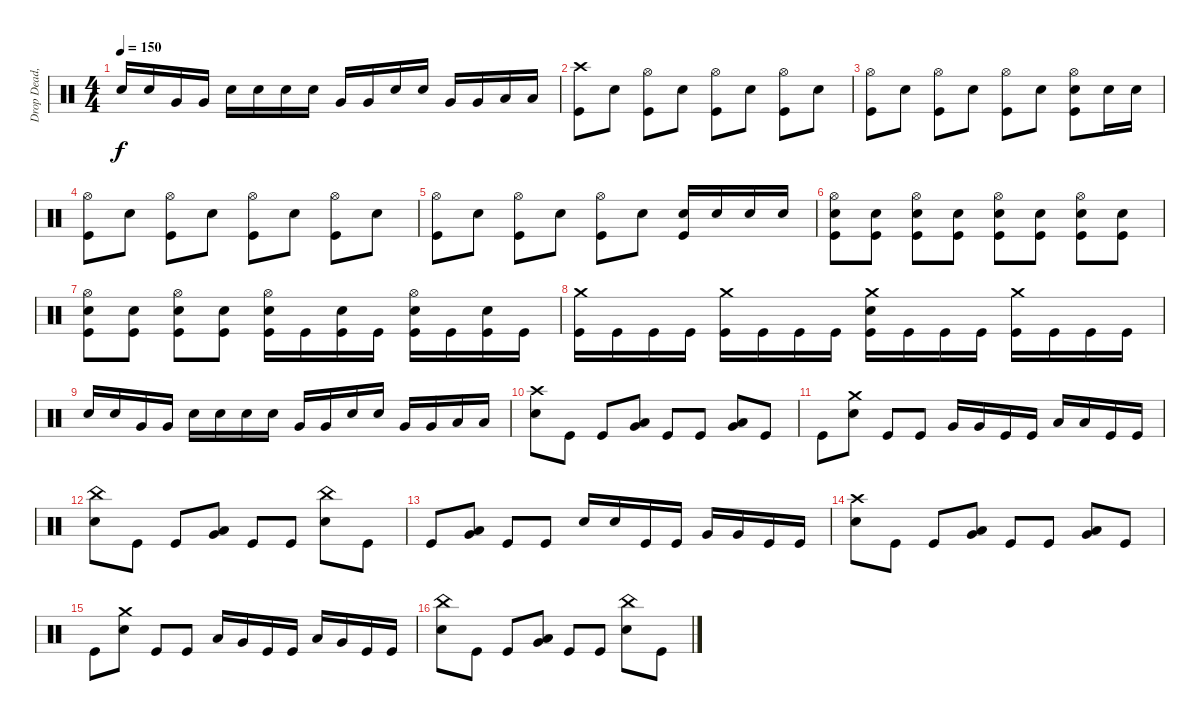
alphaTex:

\track ("Drop Dead, Johnny" "Drop Dead,") {instrument percussion}
\staff {score}
\articulation defaults
\ts (4 4)
\tempo 150
\clef neutral
\ks c "Electric Snare (hit)".16{dy f} "Electric Snare (hit)".16 "Very Low Tom (hit)".16 "Very Low Tom (hit)".16 "Electric Snare (hit)".16 "Electric Snare (hit)".16 "Electric Snare (hit)".16 "Electric Snare (hit)".16 "Very Low Tom (hit)".16 "Very Low Tom (hit)".16 "Electric Snare (hit)".16 "Electric Snare (hit)".16 "Very Low Tom (hit)".16 "Very Low Tom (hit)".16 "Low Floor Tom (hit)".16 "Low Floor Tom (hit)".16
|
("Crash high (hit)" "Kick (hit)").8 "Electric Snare (hit)".8 ("Hi-Hat (open)" "Kick (hit)").8 "Electric Snare (hit)".8 ("Hi-Hat (open)" "Kick (hit)").8 "Electric Snare (hit)".8 ("Hi-Hat (open)" "Kick (hit)").8 "Electric Snare (hit)".8 |
("Hi-Hat (open)" "Kick (hit)").8 "Electric Snare (hit)".8 ("Hi-Hat (open)" "Kick (hit)").8 "Electric Snare (hit)".8 ("Hi-Hat (open)" "Kick (hit)").8 "Electric Snare (hit)".8 ("Hi-Hat (open)" "Electric Snare (hit)" "Kick (hit)").8 "Electric Snare (hit)".16 "Electric Snare (hit)".16 |
("Hi-Hat (open)" "Kick (hit)").8 "Electric Snare (hit)".8 ("Hi-Hat (open)" "Kick (hit)").8 "Electric Snare (hit)".8 ("Hi-Hat (open)" "Kick (hit)").8 "Electric Snare (hit)".8 ("Hi-Hat (open)" "Kick (hit)").8 "Electric Snare (hit)".8 |
("Hi-Hat (open)" "Kick (hit)").8 "Electric Snare (hit)".8 ("Hi-Hat (open)" "Kick (hit)").8 "Electric Snare (hit)".8 ("Hi-Hat (open)" "Kick (hit)").8 "Electric Snare (hit)".8 ("Electric Snare (hit)" "Kick (hit)").16 "Electric Snare (hit)".16 "Electric Snare (hit)".16 "Electric Snare (hit)".16 |
("Hi-Hat (open)" "Electric Snare (hit)" "Kick (hit)").8 ("Electric Snare (hit)" "Kick (hit)").8 ("Hi-Hat (open)" "Electric Snare (hit)" "Kick (hit)").8 ("Electric Snare (hit)" "Kick (hit)").8 ("Hi-Hat (open)" "Electric Snare (hit)" "Kick (hit)").8 ("Electric Snare (hit)" "Kick (hit)").8 ("Hi-Hat (open)" "Electric Snare (hit)" "Kick (hit)").8 ("Electric Snare (hit)" "Kick (hit)").8 |
("Hi-Hat (open)" "Electric Snare (hit)" "Kick (hit)").8 ("Electric Snare (hit)" "Kick (hit)").8 ("Hi-Hat (open)" "Electric Snare (hit)" "Kick (hit)").8 ("Electric Snare (hit)" "Kick (hit)").8 ("Hi-Hat (open)" "Electric Snare (hit)" "Kick (hit)").16 "Kick (hit)".16 ("Electric Snare (hit)" "Kick (hit)").16 "Kick (hit)".16 ("Hi-Hat (open)" "Electric Snare (hit)" "Kick (hit)").16 "Kick (hit)".16 ("Electric Snare (hit)" "Kick (hit)").16 "Kick (hit)".16 |
("Crash medium (hit)" "Kick (hit)").16 "Kick (hit)".16 "Kick (hit)".16 "Kick (hit)".16 ("Crash medium (hit)" "Kick (hit)").16 "Kick (hit)".16 "Kick (hit)".16 "Kick (hit)".16 ("Crash medium (hit)" "Electric Snare (hit)" "Kick (hit)").16 "Kick (hit)".16 "Kick (hit)".16 "Kick (hit)".16 ("Crash medium (hit)" "Kick (hit)").16 "Kick (hit)".16 "Kick (hit)".16 "Kick (hit)".16 |
"Electric Snare (hit)".16 "Electric Snare (hit)".16 "Very Low Tom (hit)".16 "Very Low Tom (hit)".16 "Electric Snare (hit)".16 "Electric Snare (hit)".16 "Electric Snare (hit)".16 "Electric Snare (hit)".16 "Very Low Tom (hit)".16 "Very Low Tom (hit)".16 "Electric Snare (hit)".16 "Electric Snare (hit)".16 "Very Low Tom (hit)".16 "Very Low Tom (hit)".16 "Low Floor Tom (hit)".16 "Low Floor Tom (hit)".16 |
("Crash high (hit)" "Electric Snare (hit)").8 "Kick (hit)".8 "Kick (hit)".8 ("Very Low Tom (hit)" "Low Floor Tom (hit)").8 "Kick (hit)".8 "Kick (hit)".8 ("Very Low Tom (hit)" "Low Floor Tom (hit)").8 "Kick (hit)".8 |
"Kick (hit)".8 ("Crash medium (hit)" "Electric Snare (hit)").8 "Kick (hit)".8 "Kick (hit)".8 "Very Low Tom (hit)".16 "Very Low Tom (hit)".16 "Kick (hit)".16 "Kick (hit)".16 "Low Floor Tom (hit)".16 "Low Floor Tom (hit)".16 "Kick (hit)".16 "Kick (hit)".16 |
("China (hit)" "Electric Snare (hit)").8 "Kick (hit)".8 "Kick (hit)".8 ("Very Low Tom (hit)" "Low Floor Tom (hit)").8 "Kick (hit)".8 "Kick (hit)".8 ("China (hit)" "Electric Snare (hit)").8 "Kick (hit)".8 |
"Kick (hit)".8 ("Very Low Tom (hit)" "Low Floor Tom (hit)").8 "Kick (hit)".8 "Kick (hit)".8 "Electric Snare (hit)".16 "Electric Snare (hit)".16 "Kick (hit)".16 "Kick (hit)".16 "Very Low Tom (hit)".16 "Very Low Tom (hit)".16 "Kick (hit)".16 "Kick (hit)".16 |
("Crash high (hit)" "Electric Snare (hit)").8 "Kick (hit)".8 "Kick (hit)".8 ("Very Low Tom (hit)" "Low Floor Tom (hit)").8 "Kick (hit)".8 "Kick (hit)".8 ("Very Low Tom (hit)" "Low Floor Tom (hit)").8 "Kick (hit)".8 |
"Kick (hit)".8 ("Crash medium (hit)" "Electric Snare (hit)").8 "Kick (hit)".8 "Kick (hit)".8 "Low Floor Tom (hit)".16 "Very Low Tom (hit)".16 "Kick (hit)".16 "Kick (hit)".16 "Low Floor Tom (hit)".16 "Very Low Tom (hit)".16 "Kick (hit)".16 "Kick (hit)".16 |
("China (hit)" "Electric Snare (hit)").8 "Kick (hit)".8 "Kick (hit)".8 ("Very Low Tom (hit)" "Low Floor Tom (hit)").8 "Kick (hit)".8 "Kick (hit)".8 ("China (hit)" "Electric Snare (hit)").8 "Kick (hit)".8
